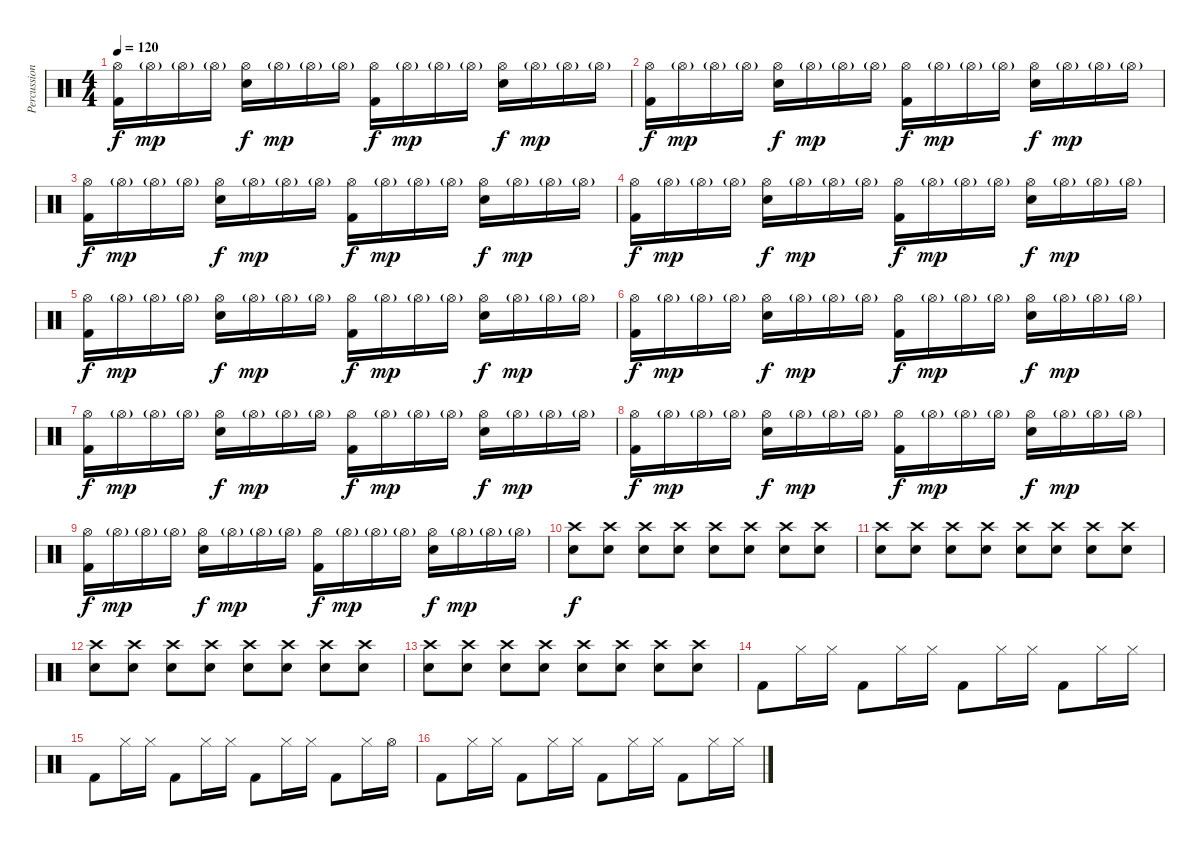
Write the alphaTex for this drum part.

\track ("Percussion" "Percussion") {instrument percussion}
\staff {score}
\articulation defaults
\ts (4 4)
\tempo 120
\clef neutral
\ks c
("Hi-Hat (open)" "Kick (hit) 2").16{dy f} "Hi-Hat (open)"{g}.16{dy mp} "Hi-Hat (open)"{g}.16 "Hi-Hat (open)"{g}.16 ("Hi-Hat (open)" "Electric Snare (hit)").16{dy f} "Hi-Hat (open)"{g}.16{dy mp} "Hi-Hat (open)"{g}.16 "Hi-Hat (open)"{g}.16 ("Hi-Hat (open)" "Kick (hit) 2").16{dy f} "Hi-Hat (open)"{g}.16{dy mp} "Hi-Hat (open)"{g}.16 "Hi-Hat (open)"{g}.16 ("Hi-Hat (open)" "Electric Snare (hit)").16{dy f} "Hi-Hat (open)"{g}.16{dy mp} "Hi-Hat (open)"{g}.16 "Hi-Hat (open)"{g}.16 |
("Hi-Hat (open)" "Kick (hit) 2").16{dy f} "Hi-Hat (open)"{g}.16{dy mp} "Hi-Hat (open)"{g}.16 "Hi-Hat (open)"{g}.16 ("Hi-Hat (open)" "Electric Snare (hit)").16{dy f} "Hi-Hat (open)"{g}.16{dy mp} "Hi-Hat (open)"{g}.16 "Hi-Hat (open)"{g}.16 ("Hi-Hat (open)" "Kick (hit) 2").16{dy f} "Hi-Hat (open)"{g}.16{dy mp} "Hi-Hat (open)"{g}.16 "Hi-Hat (open)"{g}.16 ("Hi-Hat (open)" "Electric Snare (hit)").16{dy f} "Hi-Hat (open)"{g}.16{dy mp} "Hi-Hat (open)"{g}.16 "Hi-Hat (open)"{g}.16 |
("Hi-Hat (open)" "Kick (hit) 2").16{dy f} "Hi-Hat (open)"{g}.16{dy mp} "Hi-Hat (open)"{g}.16 "Hi-Hat (open)"{g}.16 ("Hi-Hat (open)" "Electric Snare (hit)").16{dy f} "Hi-Hat (open)"{g}.16{dy mp} "Hi-Hat (open)"{g}.16 "Hi-Hat (open)"{g}.16 ("Hi-Hat (open)" "Kick (hit) 2").16{dy f} "Hi-Hat (open)"{g}.16{dy mp} "Hi-Hat (open)"{g}.16 "Hi-Hat (open)"{g}.16 ("Hi-Hat (open)" "Electric Snare (hit)").16{dy f} "Hi-Hat (open)"{g}.16{dy mp} "Hi-Hat (open)"{g}.16 "Hi-Hat (open)"{g}.16 |
("Hi-Hat (open)" "Kick (hit) 2").16{dy f} "Hi-Hat (open)"{g}.16{dy mp} "Hi-Hat (open)"{g}.16 "Hi-Hat (open)"{g}.16 ("Hi-Hat (open)" "Electric Snare (hit)").16{dy f} "Hi-Hat (open)"{g}.16{dy mp} "Hi-Hat (open)"{g}.16 "Hi-Hat (open)"{g}.16 ("Hi-Hat (open)" "Kick (hit) 2").16{dy f} "Hi-Hat (open)"{g}.16{dy mp} "Hi-Hat (open)"{g}.16 "Hi-Hat (open)"{g}.16 ("Hi-Hat (open)" "Electric Snare (hit)").16{dy f} "Hi-Hat (open)"{g}.16{dy mp} "Hi-Hat (open)"{g}.16 "Hi-Hat (open)"{g}.16 |
("Hi-Hat (open)" "Kick (hit) 2").16{dy f} "Hi-Hat (open)"{g}.16{dy mp} "Hi-Hat (open)"{g}.16 "Hi-Hat (open)"{g}.16 ("Hi-Hat (open)" "Electric Snare (hit)").16{dy f} "Hi-Hat (open)"{g}.16{dy mp} "Hi-Hat (open)"{g}.16 "Hi-Hat (open)"{g}.16 ("Hi-Hat (open)" "Kick (hit) 2").16{dy f} "Hi-Hat (open)"{g}.16{dy mp} "Hi-Hat (open)"{g}.16 "Hi-Hat (open)"{g}.16 ("Hi-Hat (open)" "Electric Snare (hit)").16{dy f} "Hi-Hat (open)"{g}.16{dy mp} "Hi-Hat (open)"{g}.16 "Hi-Hat (open)"{g}.16 |
("Hi-Hat (open)" "Kick (hit) 2").16{dy f} "Hi-Hat (open)"{g}.16{dy mp} "Hi-Hat (open)"{g}.16 "Hi-Hat (open)"{g}.16 ("Hi-Hat (open)" "Electric Snare (hit)").16{dy f} "Hi-Hat (open)"{g}.16{dy mp} "Hi-Hat (open)"{g}.16 "Hi-Hat (open)"{g}.16 ("Hi-Hat (open)" "Kick (hit) 2").16{dy f} "Hi-Hat (open)"{g}.16{dy mp} "Hi-Hat (open)"{g}.16 "Hi-Hat (open)"{g}.16 ("Hi-Hat (open)" "Electric Snare (hit)").16{dy f} "Hi-Hat (open)"{g}.16{dy mp} "Hi-Hat (open)"{g}.16 "Hi-Hat (open)"{g}.16 |
("Hi-Hat (open)" "Kick (hit) 2").16{dy f} "Hi-Hat (open)"{g}.16{dy mp} "Hi-Hat (open)"{g}.16 "Hi-Hat (open)"{g}.16 ("Hi-Hat (open)" "Electric Snare (hit)").16{dy f} "Hi-Hat (open)"{g}.16{dy mp} "Hi-Hat (open)"{g}.16 "Hi-Hat (open)"{g}.16 ("Hi-Hat (open)" "Kick (hit) 2").16{dy f} "Hi-Hat (open)"{g}.16{dy mp} "Hi-Hat (open)"{g}.16 "Hi-Hat (open)"{g}.16 ("Hi-Hat (open)" "Electric Snare (hit)").16{dy f} "Hi-Hat (open)"{g}.16{dy mp} "Hi-Hat (open)"{g}.16 "Hi-Hat (open)"{g}.16 |
("Hi-Hat (open)" "Kick (hit) 2").16{dy f} "Hi-Hat (open)"{g}.16{dy mp} "Hi-Hat (open)"{g}.16 "Hi-Hat (open)"{g}.16 ("Hi-Hat (open)" "Electric Snare (hit)").16{dy f} "Hi-Hat (open)"{g}.16{dy mp} "Hi-Hat (open)"{g}.16 "Hi-Hat (open)"{g}.16 ("Hi-Hat (open)" "Kick (hit) 2").16{dy f} "Hi-Hat (open)"{g}.16{dy mp} "Hi-Hat (open)"{g}.16 "Hi-Hat (open)"{g}.16 ("Hi-Hat (open)" "Electric Snare (hit)").16{dy f} "Hi-Hat (open)"{g}.16{dy mp} "Hi-Hat (open)"{g}.16 "Hi-Hat (open)"{g}.16 |
("Hi-Hat (open)" "Kick (hit) 2").16{dy f} "Hi-Hat (open)"{g}.16{dy mp} "Hi-Hat (open)"{g}.16 "Hi-Hat (open)"{g}.16 ("Hi-Hat (open)" "Electric Snare (hit)").16{dy f} "Hi-Hat (open)"{g}.16{dy mp} "Hi-Hat (open)"{g}.16 "Hi-Hat (open)"{g}.16 ("Hi-Hat (open)" "Kick (hit) 2").16{dy f} "Hi-Hat (open)"{g}.16{dy mp} "Hi-Hat (open)"{g}.16 "Hi-Hat (open)"{g}.16 ("Hi-Hat (open)" "Electric Snare (hit)").16{dy f} "Hi-Hat (open)"{g}.16{dy mp} "Hi-Hat (open)"{g}.16 "Hi-Hat (open)"{g}.16 |
("Crash high (hit)" "Electric Snare (hit)").8{dy f} ("Crash high (hit)" "Electric Snare (hit)").8 ("Crash high (hit)" "Electric Snare (hit)").8 ("Crash high (hit)" "Electric Snare (hit)").8 ("Crash high (hit)" "Electric Snare (hit)").8 ("Crash high (hit)" "Electric Snare (hit)").8 ("Crash high (hit)" "Electric Snare (hit)").8 ("Crash high (hit)" "Electric Snare (hit)").8 |
("Crash high (hit)" "Electric Snare (hit)").8 ("Crash high (hit)" "Electric Snare (hit)").8 ("Crash high (hit)" "Electric Snare (hit)").8 ("Crash high (hit)" "Electric Snare (hit)").8 ("Crash high (hit)" "Electric Snare (hit)").8 ("Crash high (hit)" "Electric Snare (hit)").8 ("Crash high (hit)" "Electric Snare (hit)").8 ("Crash high (hit)" "Electric Snare (hit)").8 |
("Crash high (hit)" "Electric Snare (hit)").8 ("Crash high (hit)" "Electric Snare (hit)").8 ("Crash high (hit)" "Electric Snare (hit)").8 ("Crash high (hit)" "Electric Snare (hit)").8 ("Crash high (hit)" "Electric Snare (hit)").8 ("Crash high (hit)" "Electric Snare (hit)").8 ("Crash high (hit)" "Electric Snare (hit)").8 ("Crash high (hit)" "Electric Snare (hit)").8 |
("Crash high (hit)" "Electric Snare (hit)").8 ("Crash high (hit)" "Electric Snare (hit)").8 ("Crash high (hit)" "Electric Snare (hit)").8 ("Crash high (hit)" "Electric Snare (hit)").8 ("Crash high (hit)" "Electric Snare (hit)").8 ("Crash high (hit)" "Electric Snare (hit)").8 ("Crash high (hit)" "Electric Snare (hit)").8 ("Crash high (hit)" "Electric Snare (hit)").8 |
"Kick (hit) 2".8 "Hi-Hat (closed)".16 "Hi-Hat (closed)".16 "Kick (hit) 2".8 "Hi-Hat (closed)".16 "Hi-Hat (closed)".16 "Kick (hit) 2".8 "Hi-Hat (closed)".16 "Hi-Hat (closed)".16 "Kick (hit) 2".8 "Hi-Hat (closed)".16 "Hi-Hat (closed)".16 |
"Kick (hit) 2".8 "Hi-Hat (closed)".16 "Hi-Hat (closed)".16 "Kick (hit) 2".8 "Hi-Hat (closed)".16 "Hi-Hat (closed)".16 "Kick (hit) 2".8 "Hi-Hat (closed)".16 "Hi-Hat (closed)".16 "Kick (hit) 2".8 "Hi-Hat (closed)".16 "Hi-Hat (open)".16 |
"Kick (hit) 2".8 "Hi-Hat (closed)".16 "Hi-Hat (closed)".16 "Kick (hit) 2".8 "Hi-Hat (closed)".16 "Hi-Hat (closed)".16 "Kick (hit) 2".8 "Hi-Hat (closed)".16 "Hi-Hat (closed)".16 "Kick (hit) 2".8 "Hi-Hat (closed)".16 "Hi-Hat (closed)".16
